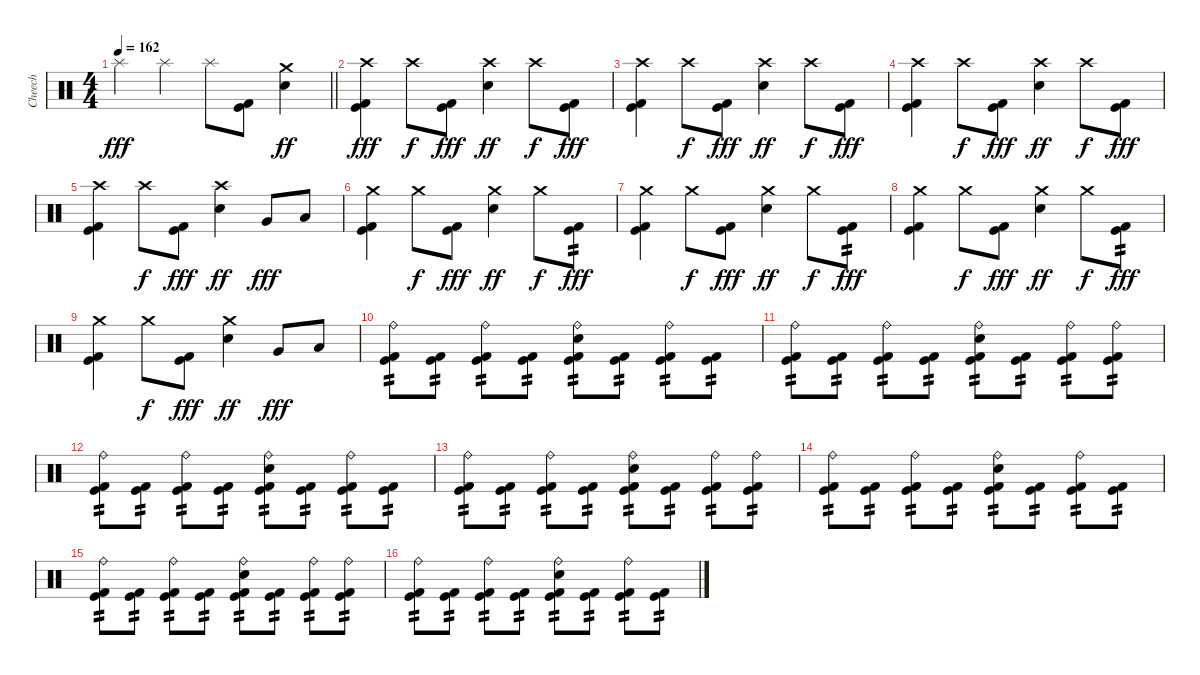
\track ("Cheech" "Cheech") {instrument percussion}
\staff {score}
\articulation defaults
\ts (4 4)
\tempo 162
\clef neutral
\barLineRight lightlight
\ks c "Splash (hit)".4{dy fff} "Splash (hit)".4 "Splash (hit)".8
("Kick (hit) 2" "Kick (hit)").8 ("Crash medium (hit)" "Electric Snare (hit)").4{dy ff} |
("Crash high (hit)" "Kick (hit) 2" "Kick (hit)").4{dy fff} "Crash high (hit)".8{dy f} ("Kick (hit) 2" "Kick (hit)").8{dy fff} ("Crash high (hit)" "Electric Snare (hit)").4{dy ff} "Crash high (hit)".8{dy f} ("Kick (hit) 2" "Kick (hit)").8{dy fff} |
("Crash high (hit)" "Kick (hit) 2" "Kick (hit)").4 "Crash high (hit)".8{dy f} ("Kick (hit) 2" "Kick (hit)").8{dy fff} ("Crash high (hit)" "Electric Snare (hit)").4{dy ff} "Crash high (hit)".8{dy f} ("Kick (hit) 2" "Kick (hit)").8{dy fff} |
("Crash high (hit)" "Kick (hit) 2" "Kick (hit)").4 "Crash high (hit)".8{dy f} ("Kick (hit) 2" "Kick (hit)").8{dy fff} ("Crash high (hit)" "Electric Snare (hit)").4{dy ff} "Crash high (hit)".8{dy f} ("Kick (hit) 2" "Kick (hit)").8{dy fff} |
("Crash high (hit)" "Kick (hit) 2" "Kick (hit)").4 "Crash high (hit)".8{dy f} ("Kick (hit) 2" "Kick (hit)").8{dy fff} ("Crash high (hit)" "Electric Snare (hit)").4{dy ff} "Very Low Tom (hit)".8{dy fff} "Low Floor Tom (hit)".8 |
("Crash medium (hit)" "Kick (hit) 2" "Kick (hit)").4 "Crash medium (hit)".8{dy f} ("Kick (hit) 2" "Kick (hit)").8{dy fff} ("Crash medium (hit)" "Electric Snare (hit)").4{dy ff} "Crash medium (hit)".8{dy f} ("Kick (hit) 2" "Kick (hit)").8{tp 2 dy fff} |
("Crash medium (hit)" "Kick (hit) 2" "Kick (hit)").4 "Crash medium (hit)".8{dy f} ("Kick (hit) 2" "Kick (hit)").8{dy fff} ("Crash medium (hit)" "Electric Snare (hit)").4{dy ff} "Crash medium (hit)".8{dy f} ("Kick (hit) 2" "Kick (hit)").8{tp 2 dy fff} |
("Crash medium (hit)" "Kick (hit) 2" "Kick (hit)").4 "Crash medium (hit)".8{dy f} ("Kick (hit) 2" "Kick (hit)").8{dy fff} ("Crash medium (hit)" "Electric Snare (hit)").4{dy ff} "Crash medium (hit)".8{dy f} ("Kick (hit) 2" "Kick (hit)").8{tp 2 dy fff} |
("Crash medium (hit)" "Kick (hit) 2" "Kick (hit)").4 "Crash medium (hit)".8{dy f} ("Kick (hit) 2" "Kick (hit)").8{dy fff} ("Crash medium (hit)" "Electric Snare (hit)").4{dy ff} "Very Low Tom (hit)".8{dy fff} "Low Floor Tom (hit)".8 |
("Ride (bell)" "Kick (hit) 2" "Kick (hit)").8{tp 2} ("Kick (hit) 2" "Kick (hit)").8{tp 2} ("Ride (bell)" "Kick (hit) 2" "Kick (hit)").8{tp 2} ("Kick (hit) 2" "Kick (hit)").8{tp 2} ("Ride (bell)" "Electric Snare (hit)" "Kick (hit) 2" "Kick (hit)").8{tp 2} ("Kick (hit) 2" "Kick (hit)").8{tp 2} ("Ride (bell)" "Kick (hit) 2" "Kick (hit)").8{tp 2} ("Kick (hit) 2" "Kick (hit)").8{tp 2} |
("Ride (bell)" "Kick (hit) 2" "Kick (hit)").8{tp 2} ("Kick (hit) 2" "Kick (hit)").8{tp 2} ("Ride (bell)" "Kick (hit) 2" "Kick (hit)").8{tp 2} ("Kick (hit) 2" "Kick (hit)").8{tp 2} ("Ride (bell)" "Electric Snare (hit)" "Kick (hit) 2" "Kick (hit)").8{tp 2} ("Kick (hit) 2" "Kick (hit)").8{tp 2} ("Ride (bell)" "Kick (hit) 2" "Kick (hit)").8{tp 2} ("Ride (bell)" "Kick (hit) 2" "Kick (hit)").8{tp 2} |
("Ride (bell)" "Kick (hit) 2" "Kick (hit)").8{tp 2} ("Kick (hit) 2" "Kick (hit)").8{tp 2} ("Ride (bell)" "Kick (hit) 2" "Kick (hit)").8{tp 2} ("Kick (hit) 2" "Kick (hit)").8{tp 2} ("Ride (bell)" "Electric Snare (hit)" "Kick (hit) 2" "Kick (hit)").8{tp 2} ("Kick (hit) 2" "Kick (hit)").8{tp 2} ("Ride (bell)" "Kick (hit) 2" "Kick (hit)").8{tp 2} ("Kick (hit) 2" "Kick (hit)").8{tp 2} |
("Ride (bell)" "Kick (hit) 2" "Kick (hit)").8{tp 2} ("Kick (hit) 2" "Kick (hit)").8{tp 2} ("Ride (bell)" "Kick (hit) 2" "Kick (hit)").8{tp 2} ("Kick (hit) 2" "Kick (hit)").8{tp 2} ("Ride (bell)" "Electric Snare (hit)" "Kick (hit) 2" "Kick (hit)").8{tp 2} ("Kick (hit) 2" "Kick (hit)").8{tp 2} ("Ride (bell)" "Kick (hit) 2" "Kick (hit)").8{tp 2} ("Ride (bell)" "Kick (hit) 2" "Kick (hit)").8{tp 2} |
("Ride (bell)" "Kick (hit) 2" "Kick (hit)").8{tp 2} ("Kick (hit) 2" "Kick (hit)").8{tp 2} ("Ride (bell)" "Kick (hit) 2" "Kick (hit)").8{tp 2} ("Kick (hit) 2" "Kick (hit)").8{tp 2} ("Ride (bell)" "Electric Snare (hit)" "Kick (hit) 2" "Kick (hit)").8{tp 2} ("Kick (hit) 2" "Kick (hit)").8{tp 2} ("Ride (bell)" "Kick (hit) 2" "Kick (hit)").8{tp 2} ("Kick (hit) 2" "Kick (hit)").8{tp 2} |
("Ride (bell)" "Kick (hit) 2" "Kick (hit)").8{tp 2} ("Kick (hit) 2" "Kick (hit)").8{tp 2} ("Ride (bell)" "Kick (hit) 2" "Kick (hit)").8{tp 2} ("Kick (hit) 2" "Kick (hit)").8{tp 2} ("Ride (bell)" "Electric Snare (hit)" "Kick (hit) 2" "Kick (hit)").8{tp 2} ("Kick (hit) 2" "Kick (hit)").8{tp 2} ("Ride (bell)" "Kick (hit) 2" "Kick (hit)").8{tp 2} ("Ride (bell)" "Kick (hit) 2" "Kick (hit)").8{tp 2} |
("Ride (bell)" "Kick (hit) 2" "Kick (hit)").8{tp 2} ("Kick (hit) 2" "Kick (hit)").8{tp 2} ("Ride (bell)" "Kick (hit) 2" "Kick (hit)").8{tp 2} ("Kick (hit) 2" "Kick (hit)").8{tp 2} ("Ride (bell)" "Electric Snare (hit)" "Kick (hit) 2" "Kick (hit)").8{tp 2} ("Kick (hit) 2" "Kick (hit)").8{tp 2} ("Ride (bell)" "Kick (hit) 2" "Kick (hit)").8{tp 2} ("Kick (hit) 2" "Kick (hit)").8{tp 2}
